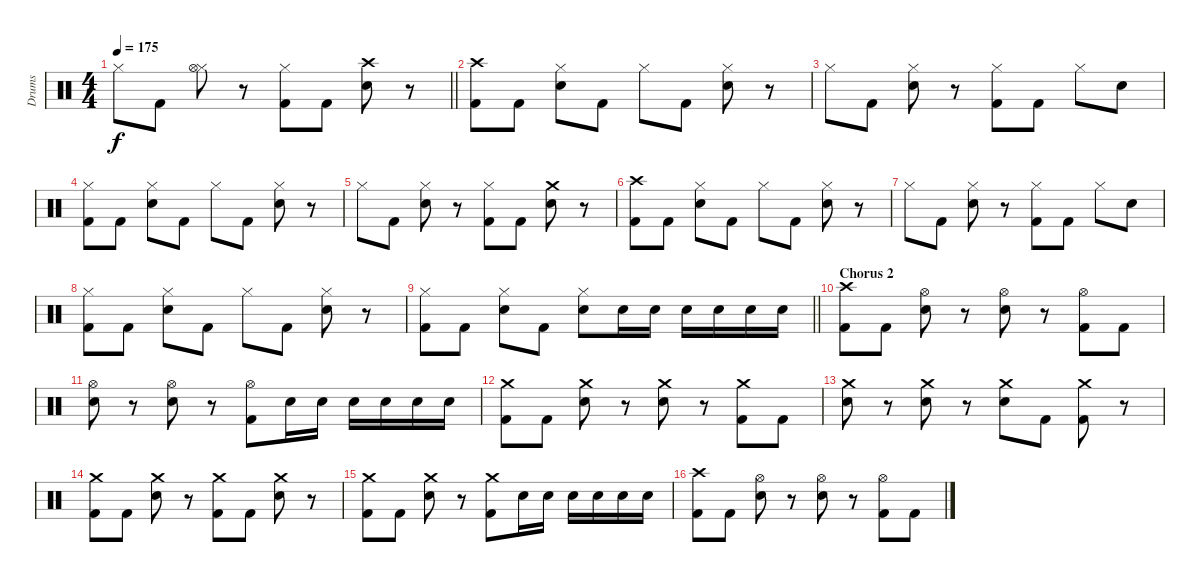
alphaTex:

\track ("Drums" "Drums") {instrument percussion}
\staff {score}
\articulation defaults
\ts (4 4)
\tempo 175
\clef neutral
\barLineRight lightlight
\ks c "Hi-Hat (closed)".8{dy f} "Kick (hit) 2".8
("Hi-Hat (closed)" "Hi-Hat (open)").8 r.8 ("Hi-Hat (closed)" "Kick (hit) 2").8 "Kick (hit) 2".8 ("Crash high (hit)" "Snare (hit) 2").8 r.8 |
("Crash high (hit)" "Kick (hit) 2").8 "Kick (hit) 2".8 ("Hi-Hat (closed)" "Snare (hit) 2").8 "Kick (hit) 2".8 "Hi-Hat (closed)".8 "Kick (hit) 2".8 ("Hi-Hat (closed)" "Snare (hit) 2").8 r.8 |
"Hi-Hat (closed)".8 "Kick (hit) 2".8 ("Hi-Hat (closed)" "Snare (hit) 2").8 r.8 ("Hi-Hat (closed)" "Kick (hit) 2").8 "Kick (hit) 2".8 "Hi-Hat (closed)".8 "Snare (hit) 2".8 |
("Hi-Hat (closed)" "Kick (hit) 2").8 "Kick (hit) 2".8 ("Hi-Hat (closed)" "Snare (hit) 2").8 "Kick (hit) 2".8 "Hi-Hat (closed)".8 "Kick (hit) 2".8 ("Hi-Hat (closed)" "Snare (hit) 2").8 r.8 |
"Hi-Hat (closed)".8 "Kick (hit) 2".8 ("Hi-Hat (closed)" "Snare (hit) 2").8 r.8 ("Hi-Hat (closed)" "Kick (hit) 2").8 "Kick (hit) 2".8 ("Crash medium (hit)" "Snare (hit) 2").8 r.8 |
("Crash high (hit)" "Kick (hit) 2").8 "Kick (hit) 2".8 ("Hi-Hat (closed)" "Snare (hit) 2").8 "Kick (hit) 2".8 "Hi-Hat (closed)".8 "Kick (hit) 2".8 ("Hi-Hat (closed)" "Snare (hit) 2").8 r.8 |
"Hi-Hat (closed)".8 "Kick (hit) 2".8 ("Hi-Hat (closed)" "Snare (hit) 2").8 r.8 ("Hi-Hat (closed)" "Kick (hit) 2").8 "Kick (hit) 2".8 "Hi-Hat (closed)".8 "Snare (hit) 2".8 |
("Hi-Hat (closed)" "Kick (hit) 2").8 "Kick (hit) 2".8 ("Hi-Hat (closed)" "Snare (hit) 2").8 "Kick (hit) 2".8 "Hi-Hat (closed)".8 "Kick (hit) 2".8 ("Hi-Hat (closed)" "Snare (hit) 2").8 r.8 |
\barLineRight lightlight
("Hi-Hat (closed)" "Kick (hit) 2").8 "Kick (hit) 2".8 ("Hi-Hat (closed)" "Snare (hit) 2").8 "Kick (hit) 2".8 ("Hi-Hat (closed)" "Snare (hit) 2").8 "Snare (hit) 2".16 "Snare (hit) 2".16 "Snare (hit) 2".16 "Snare (hit) 2".16 "Snare (hit) 2".16 "Snare (hit) 2".16 |
\section ("" "Chorus 2")
("Crash high (hit)" "Kick (hit) 2").8 "Kick (hit) 2".8 ("Hi-Hat (open)" "Snare (hit) 2").8 r.8 ("Hi-Hat (open)" "Snare (hit) 2").8 r.8 ("Hi-Hat (open)" "Kick (hit) 2").8 "Kick (hit) 2".8 |
("Hi-Hat (open)" "Snare (hit) 2").8 r.8 ("Hi-Hat (open)" "Snare (hit) 2").8 r.8 ("Hi-Hat (open)" "Kick (hit) 2").8 "Snare (hit) 2".16 "Snare (hit) 2".16 "Snare (hit) 2".16 "Snare (hit) 2".16 "Snare (hit) 2".16 "Snare (hit) 2".16 |
("Crash medium (hit)" "Kick (hit) 2").8 "Kick (hit) 2".8 ("Crash medium (hit)" "Snare (hit) 2").8 r.8 ("Crash medium (hit)" "Snare (hit) 2").8 r.8 ("Crash medium (hit)" "Kick (hit) 2").8 "Kick (hit) 2".8 |
("Crash medium (hit)" "Snare (hit) 2").8 r.8 ("Crash medium (hit)" "Snare (hit) 2").8 r.8 ("Crash medium (hit)" "Snare (hit) 2").8 "Kick (hit) 2".8 ("Crash medium (hit)" "Kick (hit) 2").8 r.8 |
("Crash medium (hit)" "Kick (hit) 2").8 "Kick (hit) 2".8 ("Crash medium (hit)" "Snare (hit) 2").8 r.8 ("Crash medium (hit)" "Kick (hit) 2").8 "Kick (hit) 2".8 ("Crash medium (hit)" "Snare (hit) 2").8 r.8 |
("Crash medium (hit)" "Kick (hit) 2").8 "Kick (hit) 2".8 ("Crash medium (hit)" "Snare (hit) 2").8 r.8 ("Crash medium (hit)" "Kick (hit) 2").8 "Snare (hit) 2".16 "Snare (hit) 2".16 "Snare (hit) 2".16 "Snare (hit) 2".16 "Snare (hit) 2".16 "Snare (hit) 2".16 |
("Crash high (hit)" "Kick (hit) 2").8 "Kick (hit) 2".8 ("Hi-Hat (open)" "Snare (hit) 2").8 r.8 ("Hi-Hat (open)" "Snare (hit) 2").8 r.8 ("Hi-Hat (open)" "Kick (hit) 2").8 "Kick (hit) 2".8
